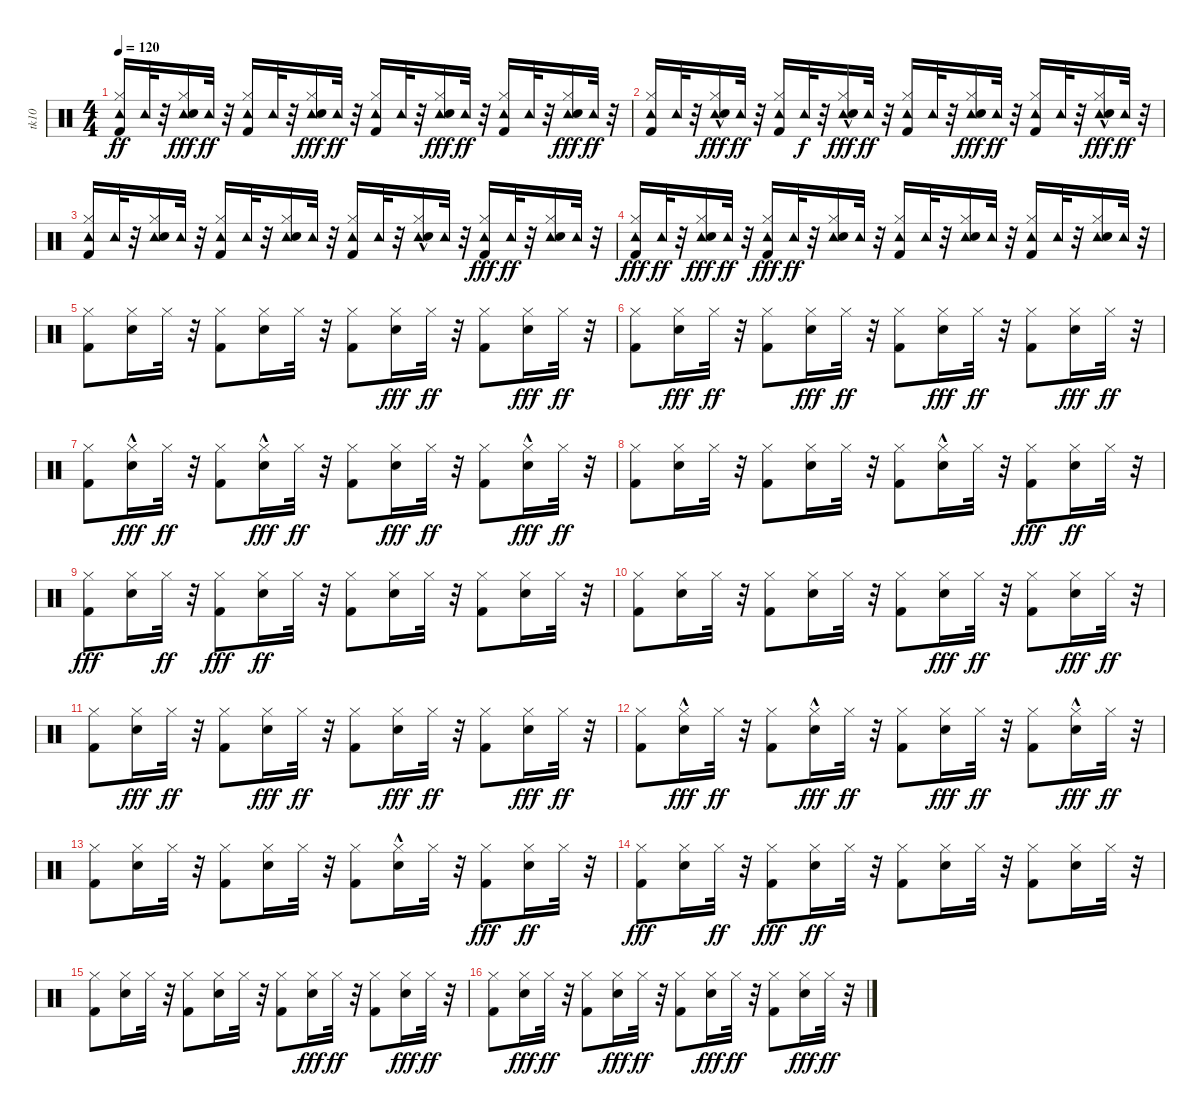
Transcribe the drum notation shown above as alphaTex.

\track ("tk10" "tk10") {instrument percussion}
\staff {score}
\articulation defaults
\ts (4 4)
\tempo 120
\clef neutral
\ks c
("Tambourine (hit)" "Hi-Hat (closed)" "Kick (hit) 2").16{dy ff} "Tambourine (hit)".32 r.32 ("Tambourine (hit)" "Hi-Hat (closed)" "Snare (hit) 2").16{dy fff} "Tambourine (hit)".32{dy ff} r.32 ("Tambourine (hit)" "Hi-Hat (closed)" "Kick (hit) 2").16 "Tambourine (hit)".32 r.32 ("Tambourine (hit)" "Hi-Hat (closed)" "Snare (hit) 2").16{dy fff} "Tambourine (hit)".32{dy ff} r.32 ("Hi-Hat (closed)" "Tambourine (hit)" "Kick (hit) 2").16 "Tambourine (hit)".32 r.32 ("Tambourine (hit)" "Hi-Hat (closed)" "Snare (hit) 2").16{dy fff} "Tambourine (hit)".32{dy ff} r.32 ("Tambourine (hit)" "Hi-Hat (closed)" "Kick (hit) 2").16 "Tambourine (hit)".32 r.32 ("Hi-Hat (closed)" "Tambourine (hit)" "Snare (hit) 2").16{dy fff} "Tambourine (hit)".32{dy ff} r.32 |
("Hi-Hat (closed)" "Tambourine (hit)" "Kick (hit) 2").16 "Tambourine (hit)".32 r.32 ("Tambourine (hit)" "Hi-Hat (closed)" "Snare (hit) 2"{hac}).16{dy fff} "Tambourine (hit)".32{dy ff} r.32 ("Tambourine (hit)" "Hi-Hat (closed)" "Kick (hit) 2").16 "Tambourine (hit)".32{dy f} r.32 ("Tambourine (hit)" "Hi-Hat (closed)" "Snare (hit) 2"{hac}).16{dy fff} "Tambourine (hit)".32{dy ff} r.32 ("Tambourine (hit)" "Hi-Hat (closed)" "Kick (hit) 2").16 "Tambourine (hit)".32 r.32 ("Tambourine (hit)" "Hi-Hat (closed)" "Snare (hit) 2").16{dy fff} "Tambourine (hit)".32{dy ff} r.32 ("Tambourine (hit)" "Hi-Hat (closed)" "Kick (hit) 2").16 "Tambourine (hit)".32 r.32 ("Tambourine (hit)" "Hi-Hat (closed)" "Snare (hit) 2"{hac}).16{dy fff} "Tambourine (hit)".32{dy ff} r.32 |
("Tambourine (hit)" "Hi-Hat (closed)" "Kick (hit) 2").16 "Tambourine (hit)".32 r.32 ("Tambourine (hit)" "Hi-Hat (closed)" "Snare (hit) 2").16 "Tambourine (hit)".32 r.32 ("Tambourine (hit)" "Hi-Hat (closed)" "Kick (hit) 2").16 "Tambourine (hit)".32 r.32 ("Tambourine (hit)" "Hi-Hat (closed)" "Snare (hit) 2").16 "Tambourine (hit)".32 r.32 ("Tambourine (hit)" "Hi-Hat (closed)" "Kick (hit) 2").16 "Tambourine (hit)".32 r.32 ("Tambourine (hit)" "Hi-Hat (closed)" "Snare (hit) 2"{hac}).16 "Tambourine (hit)".32 r.32 ("Hi-Hat (closed)" "Tambourine (hit)" "Kick (hit) 2").16{dy fff} "Tambourine (hit)".32{dy ff} r.32 ("Tambourine (hit)" "Hi-Hat (closed)" "Snare (hit) 2").16 "Tambourine (hit)".32 r.32 |
("Tambourine (hit)" "Hi-Hat (closed)" "Kick (hit) 2").16{dy fff} "Tambourine (hit)".32{dy ff} r.32 ("Tambourine (hit)" "Hi-Hat (closed)" "Snare (hit) 2").16{dy fff} "Tambourine (hit)".32{dy ff} r.32 ("Tambourine (hit)" "Hi-Hat (closed)" "Kick (hit) 2").16{dy fff} "Tambourine (hit)".32{dy ff} r.32 ("Hi-Hat (closed)" "Tambourine (hit)" "Snare (hit) 2").16 "Tambourine (hit)".32 r.32 ("Tambourine (hit)" "Hi-Hat (closed)" "Kick (hit) 2").16 "Tambourine (hit)".32 r.32 ("Tambourine (hit)" "Hi-Hat (closed)" "Snare (hit) 2").16 "Tambourine (hit)".32 r.32 ("Tambourine (hit)" "Hi-Hat (closed)" "Kick (hit) 2").16 "Tambourine (hit)".32 r.32 ("Hi-Hat (closed)" "Tambourine (hit)" "Snare (hit) 2").16 "Tambourine (hit)".32 r.32 |
("Hi-Hat (closed)" "Kick (hit) 2").8 ("Hi-Hat (closed)" "Snare (hit) 2").16 "Hi-Hat (closed)".32 r.32 ("Hi-Hat (closed)" "Kick (hit) 2").8 ("Hi-Hat (closed)" "Snare (hit) 2").16 "Hi-Hat (closed)".32 r.32 ("Hi-Hat (closed)" "Kick (hit) 2").8 ("Hi-Hat (closed)" "Snare (hit) 2").16{dy fff} "Hi-Hat (closed)".32{dy ff} r.32 ("Hi-Hat (closed)" "Kick (hit) 2").8 ("Hi-Hat (closed)" "Snare (hit) 2").16{dy fff} "Hi-Hat (closed)".32{dy ff} r.32 |
("Hi-Hat (closed)" "Kick (hit) 2").8 ("Hi-Hat (closed)" "Snare (hit) 2").16{dy fff} "Hi-Hat (closed)".32{dy ff} r.32 ("Hi-Hat (closed)" "Kick (hit) 2").8 ("Hi-Hat (closed)" "Snare (hit) 2").16{dy fff} "Hi-Hat (closed)".32{dy ff} r.32 ("Hi-Hat (closed)" "Kick (hit) 2").8 ("Hi-Hat (closed)" "Snare (hit) 2").16{dy fff} "Hi-Hat (closed)".32{dy ff} r.32 ("Hi-Hat (closed)" "Kick (hit) 2").8 ("Hi-Hat (closed)" "Snare (hit) 2").16{dy fff} "Hi-Hat (closed)".32{dy ff} r.32 |
("Hi-Hat (closed)" "Kick (hit) 2").8 ("Hi-Hat (closed)" "Snare (hit) 2"{hac}).16{dy fff} "Hi-Hat (closed)".32{dy ff} r.32 ("Hi-Hat (closed)" "Kick (hit) 2").8 ("Hi-Hat (closed)" "Snare (hit) 2"{hac}).16{dy fff} "Hi-Hat (closed)".32{dy ff} r.32 ("Hi-Hat (closed)" "Kick (hit) 2").8 ("Hi-Hat (closed)" "Snare (hit) 2").16{dy fff} "Hi-Hat (closed)".32{dy ff} r.32 ("Hi-Hat (closed)" "Kick (hit) 2").8 ("Hi-Hat (closed)" "Snare (hit) 2"{hac}).16{dy fff} "Hi-Hat (closed)".32{dy ff} r.32 |
("Hi-Hat (closed)" "Kick (hit) 2").8 ("Hi-Hat (closed)" "Snare (hit) 2").16 "Hi-Hat (closed)".32 r.32 ("Hi-Hat (closed)" "Kick (hit) 2").8 ("Hi-Hat (closed)" "Snare (hit) 2").16 "Hi-Hat (closed)".32 r.32 ("Hi-Hat (closed)" "Kick (hit) 2").8 ("Hi-Hat (closed)" "Snare (hit) 2"{hac}).16 "Hi-Hat (closed)".32 r.32 ("Hi-Hat (closed)" "Kick (hit) 2").8{dy fff} ("Hi-Hat (closed)" "Snare (hit) 2").16{dy ff} "Hi-Hat (closed)".32 r.32 |
("Hi-Hat (closed)" "Kick (hit) 2").8{dy fff} ("Hi-Hat (closed)" "Snare (hit) 2").16 "Hi-Hat (closed)".32{dy ff} r.32 ("Hi-Hat (closed)" "Kick (hit) 2").8{dy fff} ("Hi-Hat (closed)" "Snare (hit) 2").16{dy ff} "Hi-Hat (closed)".32 r.32 ("Hi-Hat (closed)" "Kick (hit) 2").8 ("Hi-Hat (closed)" "Snare (hit) 2").16 "Hi-Hat (closed)".32 r.32 ("Hi-Hat (closed)" "Kick (hit) 2").8 ("Hi-Hat (closed)" "Snare (hit) 2").16 "Hi-Hat (closed)".32 r.32 |
("Hi-Hat (closed)" "Kick (hit) 2").8 ("Hi-Hat (closed)" "Snare (hit) 2").16 "Hi-Hat (closed)".32 r.32 ("Hi-Hat (closed)" "Kick (hit) 2").8 ("Hi-Hat (closed)" "Snare (hit) 2").16 "Hi-Hat (closed)".32 r.32 ("Hi-Hat (closed)" "Kick (hit) 2").8 ("Hi-Hat (closed)" "Snare (hit) 2").16{dy fff} "Hi-Hat (closed)".32{dy ff} r.32 ("Hi-Hat (closed)" "Kick (hit) 2").8 ("Hi-Hat (closed)" "Snare (hit) 2").16{dy fff} "Hi-Hat (closed)".32{dy ff} r.32 |
("Hi-Hat (closed)" "Kick (hit) 2").8 ("Hi-Hat (closed)" "Snare (hit) 2").16{dy fff} "Hi-Hat (closed)".32{dy ff} r.32 ("Hi-Hat (closed)" "Kick (hit) 2").8 ("Hi-Hat (closed)" "Snare (hit) 2").16{dy fff} "Hi-Hat (closed)".32{dy ff} r.32 ("Hi-Hat (closed)" "Kick (hit) 2").8 ("Hi-Hat (closed)" "Snare (hit) 2").16{dy fff} "Hi-Hat (closed)".32{dy ff} r.32 ("Hi-Hat (closed)" "Kick (hit) 2").8 ("Hi-Hat (closed)" "Snare (hit) 2").16{dy fff} "Hi-Hat (closed)".32{dy ff} r.32 |
("Hi-Hat (closed)" "Kick (hit) 2").8 ("Hi-Hat (closed)" "Snare (hit) 2"{hac}).16{dy fff} "Hi-Hat (closed)".32{dy ff} r.32 ("Hi-Hat (closed)" "Kick (hit) 2").8 ("Hi-Hat (closed)" "Snare (hit) 2"{hac}).16{dy fff} "Hi-Hat (closed)".32{dy ff} r.32 ("Hi-Hat (closed)" "Kick (hit) 2").8 ("Hi-Hat (closed)" "Snare (hit) 2").16{dy fff} "Hi-Hat (closed)".32{dy ff} r.32 ("Hi-Hat (closed)" "Kick (hit) 2").8 ("Hi-Hat (closed)" "Snare (hit) 2"{hac}).16{dy fff} "Hi-Hat (closed)".32{dy ff} r.32 |
("Hi-Hat (closed)" "Kick (hit) 2").8 ("Hi-Hat (closed)" "Snare (hit) 2").16 "Hi-Hat (closed)".32 r.32 ("Hi-Hat (closed)" "Kick (hit) 2").8 ("Hi-Hat (closed)" "Snare (hit) 2").16 "Hi-Hat (closed)".32 r.32 ("Hi-Hat (closed)" "Kick (hit) 2").8 ("Hi-Hat (closed)" "Snare (hit) 2"{hac}).16 "Hi-Hat (closed)".32 r.32 ("Hi-Hat (closed)" "Kick (hit) 2").8{dy fff} ("Hi-Hat (closed)" "Snare (hit) 2").16{dy ff} "Hi-Hat (closed)".32 r.32 |
("Hi-Hat (closed)" "Kick (hit) 2").8{dy fff} ("Hi-Hat (closed)" "Snare (hit) 2").16 "Hi-Hat (closed)".32{dy ff} r.32 ("Hi-Hat (closed)" "Kick (hit) 2").8{dy fff} ("Hi-Hat (closed)" "Snare (hit) 2").16{dy ff} "Hi-Hat (closed)".32 r.32 ("Hi-Hat (closed)" "Kick (hit) 2").8 ("Hi-Hat (closed)" "Snare (hit) 2").16 "Hi-Hat (closed)".32 r.32 ("Hi-Hat (closed)" "Kick (hit) 2").8 ("Hi-Hat (closed)" "Snare (hit) 2").16 "Hi-Hat (closed)".32 r.32 |
("Hi-Hat (closed)" "Kick (hit) 2").8 ("Hi-Hat (closed)" "Snare (hit) 2").16 "Hi-Hat (closed)".32 r.32 ("Hi-Hat (closed)" "Kick (hit) 2").8 ("Hi-Hat (closed)" "Snare (hit) 2").16 "Hi-Hat (closed)".32 r.32 ("Hi-Hat (closed)" "Kick (hit) 2").8 ("Hi-Hat (closed)" "Snare (hit) 2").16{dy fff} "Hi-Hat (closed)".32{dy ff} r.32 ("Hi-Hat (closed)" "Kick (hit) 2").8 ("Hi-Hat (closed)" "Snare (hit) 2").16{dy fff} "Hi-Hat (closed)".32{dy ff} r.32 |
("Hi-Hat (closed)" "Kick (hit) 2").8 ("Hi-Hat (closed)" "Snare (hit) 2").16{dy fff} "Hi-Hat (closed)".32{dy ff} r.32 ("Hi-Hat (closed)" "Kick (hit) 2").8 ("Hi-Hat (closed)" "Snare (hit) 2").16{dy fff} "Hi-Hat (closed)".32{dy ff} r.32 ("Hi-Hat (closed)" "Kick (hit) 2").8 ("Hi-Hat (closed)" "Snare (hit) 2").16{dy fff} "Hi-Hat (closed)".32{dy ff} r.32 ("Hi-Hat (closed)" "Kick (hit) 2").8 ("Hi-Hat (closed)" "Snare (hit) 2").16{dy fff} "Hi-Hat (closed)".32{dy ff} r.32
